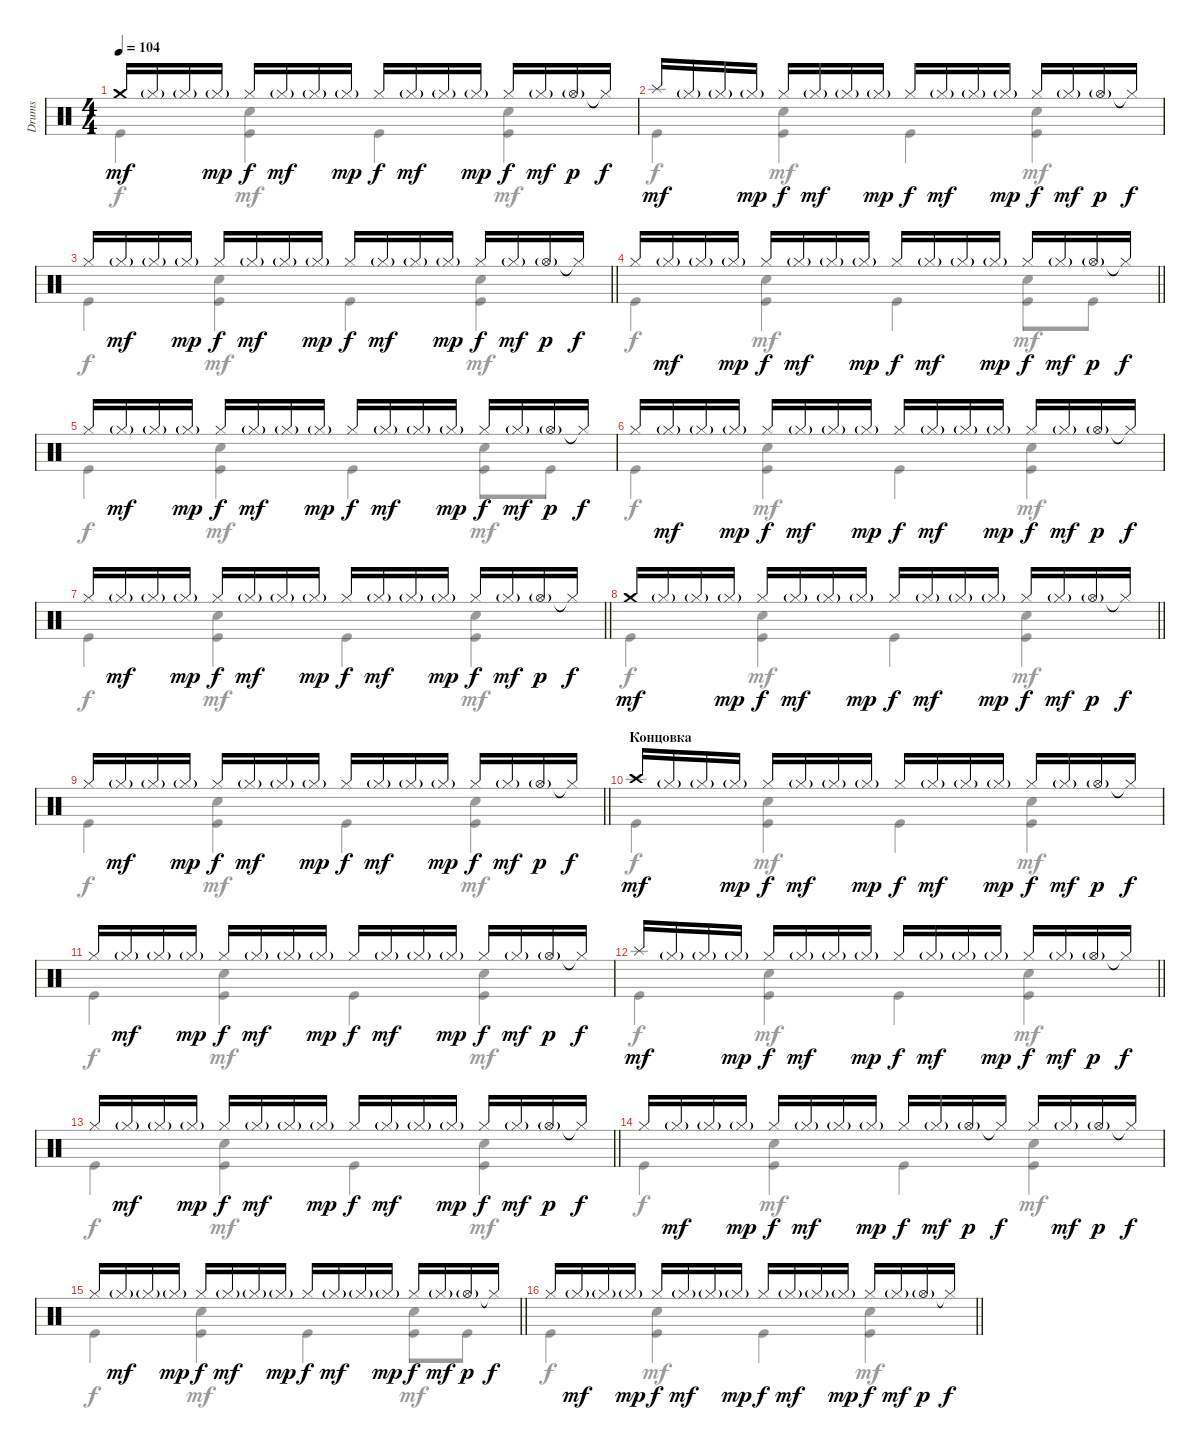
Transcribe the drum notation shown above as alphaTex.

\track ("Drums" "Drums") {instrument percussion}
\staff {score}
\articulation defaults
\voice
\ts (4 4)
\tempo 104
\clef neutral
\ks c "Crash medium (hit)".16{dy mf} "Hi-Hat (closed)"{g}.16 "Hi-Hat (closed)"{g}.16 "Hi-Hat (closed)"{g}.16{dy mp} "Hi-Hat (closed)".16{dy f} "Hi-Hat (closed)"{g}.16{dy mf} "Hi-Hat (closed)"{g}.16 "Hi-Hat (closed)"{g}.16{dy mp} "Hi-Hat (closed)".16{dy f} "Hi-Hat (closed)"{g}.16{dy mf} "Hi-Hat (closed)"{g}.16 "Hi-Hat (closed)"{g}.16{dy mp} "Hi-Hat (closed)".16{dy f} "Hi-Hat (closed)"{g}.16{dy mf} "Hi-Hat (open)"{g}.16{dy p} "Hi-Hat (closed)"{t}.16{dy f}
|
"Splash (hit)".16{dy mf} "Hi-Hat (closed)"{g}.16 "Hi-Hat (closed)"{g}.16 "Hi-Hat (closed)"{g}.16{dy mp} "Hi-Hat (closed)".16{dy f} "Hi-Hat (closed)"{g}.16{dy mf} "Hi-Hat (closed)"{g}.16 "Hi-Hat (closed)"{g}.16{dy mp} "Hi-Hat (closed)".16{dy f} "Hi-Hat (closed)"{g}.16{dy mf} "Hi-Hat (closed)"{g}.16 "Hi-Hat (closed)"{g}.16{dy mp} "Hi-Hat (closed)".16{dy f} "Hi-Hat (closed)"{g}.16{dy mf} "Hi-Hat (open)"{g}.16{dy p} "Hi-Hat (closed)"{t}.16{dy f} |
\barLineRight lightlight "Hi-Hat (closed)".16 "Hi-Hat (closed)"{g}.16{dy mf} "Hi-Hat (closed)"{g}.16 "Hi-Hat (closed)"{g}.16{dy mp} "Hi-Hat (closed)".16{dy f} "Hi-Hat (closed)"{g}.16{dy mf} "Hi-Hat (closed)"{g}.16 "Hi-Hat (closed)"{g}.16{dy mp} "Hi-Hat (closed)".16{dy f} "Hi-Hat (closed)"{g}.16{dy mf} "Hi-Hat (closed)"{g}.16 "Hi-Hat (closed)"{g}.16{dy mp} "Hi-Hat (closed)".16{dy f} "Hi-Hat (closed)"{g}.16{dy mf} "Hi-Hat (open)"{g}.16{dy p} "Hi-Hat (closed)"{t}.16{dy f}
|
\barLineRight lightlight "Hi-Hat (closed)".16 "Hi-Hat (closed)"{g}.16{dy mf} "Hi-Hat (closed)"{g}.16 "Hi-Hat (closed)"{g}.16{dy mp} "Hi-Hat (closed)".16{dy f} "Hi-Hat (closed)"{g}.16{dy mf} "Hi-Hat (closed)"{g}.16 "Hi-Hat (closed)"{g}.16{dy mp} "Hi-Hat (closed)".16{dy f} "Hi-Hat (closed)"{g}.16{dy mf} "Hi-Hat (closed)"{g}.16 "Hi-Hat (closed)"{g}.16{dy mp} "Hi-Hat (closed)".16{dy f} "Hi-Hat (closed)"{g}.16{dy mf} "Hi-Hat (open)"{g}.16{dy p} "Hi-Hat (closed)"{t}.16{dy f}
|
"Hi-Hat (closed)".16 "Hi-Hat (closed)"{g}.16{dy mf} "Hi-Hat (closed)"{g}.16 "Hi-Hat (closed)"{g}.16{dy mp} "Hi-Hat (closed)".16{dy f} "Hi-Hat (closed)"{g}.16{dy mf} "Hi-Hat (closed)"{g}.16 "Hi-Hat (closed)"{g}.16{dy mp} "Hi-Hat (closed)".16{dy f} "Hi-Hat (closed)"{g}.16{dy mf} "Hi-Hat (closed)"{g}.16 "Hi-Hat (closed)"{g}.16{dy mp} "Hi-Hat (closed)".16{dy f} "Hi-Hat (closed)"{g}.16{dy mf} "Hi-Hat (open)"{g}.16{dy p} "Hi-Hat (closed)"{t}.16{dy f} |
"Hi-Hat (closed)".16 "Hi-Hat (closed)"{g}.16{dy mf} "Hi-Hat (closed)"{g}.16 "Hi-Hat (closed)"{g}.16{dy mp} "Hi-Hat (closed)".16{dy f} "Hi-Hat (closed)"{g}.16{dy mf} "Hi-Hat (closed)"{g}.16 "Hi-Hat (closed)"{g}.16{dy mp} "Hi-Hat (closed)".16{dy f} "Hi-Hat (closed)"{g}.16{dy mf} "Hi-Hat (closed)"{g}.16 "Hi-Hat (closed)"{g}.16{dy mp} "Hi-Hat (closed)".16{dy f} "Hi-Hat (closed)"{g}.16{dy mf} "Hi-Hat (open)"{g}.16{dy p} "Hi-Hat (closed)"{t}.16{dy f} |
\barLineRight lightlight "Hi-Hat (closed)".16 "Hi-Hat (closed)"{g}.16{dy mf} "Hi-Hat (closed)"{g}.16 "Hi-Hat (closed)"{g}.16{dy mp} "Hi-Hat (closed)".16{dy f} "Hi-Hat (closed)"{g}.16{dy mf} "Hi-Hat (closed)"{g}.16 "Hi-Hat (closed)"{g}.16{dy mp} "Hi-Hat (closed)".16{dy f} "Hi-Hat (closed)"{g}.16{dy mf} "Hi-Hat (closed)"{g}.16 "Hi-Hat (closed)"{g}.16{dy mp} "Hi-Hat (closed)".16{dy f} "Hi-Hat (closed)"{g}.16{dy mf} "Hi-Hat (open)"{g}.16{dy p} "Hi-Hat (closed)"{t}.16{dy f}
|
\barLineRight lightlight "Crash medium (hit)".16{dy mf} "Hi-Hat (closed)"{g}.16 "Hi-Hat (closed)"{g}.16 "Hi-Hat (closed)"{g}.16{dy mp} "Hi-Hat (closed)".16{dy f} "Hi-Hat (closed)"{g}.16{dy mf} "Hi-Hat (closed)"{g}.16 "Hi-Hat (closed)"{g}.16{dy mp} "Hi-Hat (closed)".16{dy f} "Hi-Hat (closed)"{g}.16{dy mf} "Hi-Hat (closed)"{g}.16 "Hi-Hat (closed)"{g}.16{dy mp} "Hi-Hat (closed)".16{dy f} "Hi-Hat (closed)"{g}.16{dy mf} "Hi-Hat (open)"{g}.16{dy p} "Hi-Hat (closed)"{t}.16{dy f}
|
\barLineRight lightlight "Hi-Hat (closed)".16 "Hi-Hat (closed)"{g}.16{dy mf} "Hi-Hat (closed)"{g}.16 "Hi-Hat (closed)"{g}.16{dy mp} "Hi-Hat (closed)".16{dy f} "Hi-Hat (closed)"{g}.16{dy mf} "Hi-Hat (closed)"{g}.16 "Hi-Hat (closed)"{g}.16{dy mp} "Hi-Hat (closed)".16{dy f} "Hi-Hat (closed)"{g}.16{dy mf} "Hi-Hat (closed)"{g}.16 "Hi-Hat (closed)"{g}.16{dy mp} "Hi-Hat (closed)".16{dy f} "Hi-Hat (closed)"{g}.16{dy mf} "Hi-Hat (open)"{g}.16{dy p} "Hi-Hat (closed)"{t}.16{dy f}
|
\section ("" "Концовка")
"Crash high (hit)".16{dy mf} "Hi-Hat (closed)"{g}.16 "Hi-Hat (closed)"{g}.16 "Hi-Hat (closed)"{g}.16{dy mp} "Hi-Hat (closed)".16{dy f} "Hi-Hat (closed)"{g}.16{dy mf} "Hi-Hat (closed)"{g}.16 "Hi-Hat (closed)"{g}.16{dy mp} "Hi-Hat (closed)".16{dy f} "Hi-Hat (closed)"{g}.16{dy mf} "Hi-Hat (closed)"{g}.16 "Hi-Hat (closed)"{g}.16{dy mp} "Hi-Hat (closed)".16{dy f} "Hi-Hat (closed)"{g}.16{dy mf} "Hi-Hat (open)"{g}.16{dy p} "Hi-Hat (closed)"{t}.16{dy f} |
"Hi-Hat (closed)".16 "Hi-Hat (closed)"{g}.16{dy mf} "Hi-Hat (closed)"{g}.16 "Hi-Hat (closed)"{g}.16{dy mp} "Hi-Hat (closed)".16{dy f} "Hi-Hat (closed)"{g}.16{dy mf} "Hi-Hat (closed)"{g}.16 "Hi-Hat (closed)"{g}.16{dy mp} "Hi-Hat (closed)".16{dy f} "Hi-Hat (closed)"{g}.16{dy mf} "Hi-Hat (closed)"{g}.16 "Hi-Hat (closed)"{g}.16{dy mp} "Hi-Hat (closed)".16{dy f} "Hi-Hat (closed)"{g}.16{dy mf} "Hi-Hat (open)"{g}.16{dy p} "Hi-Hat (closed)"{t}.16{dy f} |
\barLineRight lightlight "Splash (hit)".16{dy mf} "Hi-Hat (closed)"{g}.16 "Hi-Hat (closed)"{g}.16 "Hi-Hat (closed)"{g}.16{dy mp} "Hi-Hat (closed)".16{dy f} "Hi-Hat (closed)"{g}.16{dy mf} "Hi-Hat (closed)"{g}.16 "Hi-Hat (closed)"{g}.16{dy mp} "Hi-Hat (closed)".16{dy f} "Hi-Hat (closed)"{g}.16{dy mf} "Hi-Hat (closed)"{g}.16 "Hi-Hat (closed)"{g}.16{dy mp} "Hi-Hat (closed)".16{dy f} "Hi-Hat (closed)"{g}.16{dy mf} "Hi-Hat (open)"{g}.16{dy p} "Hi-Hat (closed)"{t}.16{dy f}
|
\barLineRight lightlight "Hi-Hat (closed)".16 "Hi-Hat (closed)"{g}.16{dy mf} "Hi-Hat (closed)"{g}.16 "Hi-Hat (closed)"{g}.16{dy mp} "Hi-Hat (closed)".16{dy f} "Hi-Hat (closed)"{g}.16{dy mf} "Hi-Hat (closed)"{g}.16 "Hi-Hat (closed)"{g}.16{dy mp} "Hi-Hat (closed)".16{dy f} "Hi-Hat (closed)"{g}.16{dy mf} "Hi-Hat (closed)"{g}.16 "Hi-Hat (closed)"{g}.16{dy mp} "Hi-Hat (closed)".16{dy f} "Hi-Hat (closed)"{g}.16{dy mf} "Hi-Hat (open)"{g}.16{dy p} "Hi-Hat (closed)"{t}.16{dy f}
|
\section ("" "")
"Hi-Hat (closed)".16 "Hi-Hat (closed)"{g}.16{dy mf} "Hi-Hat (closed)"{g}.16 "Hi-Hat (closed)"{g}.16{dy mp} "Hi-Hat (closed)".16{dy f} "Hi-Hat (closed)"{g}.16{dy mf} "Hi-Hat (closed)"{g}.16 "Hi-Hat (closed)"{g}.16{dy mp} "Hi-Hat (closed)".16{dy f} "Hi-Hat (closed)"{g}.16{dy mf} "Hi-Hat (open)"{g}.16{dy p} "Hi-Hat (closed)"{t}.16{dy f} "Hi-Hat (closed)".16 "Hi-Hat (closed)"{g}.16{dy mf} "Hi-Hat (open)"{g}.16{dy p} "Hi-Hat (closed)"{t}.16{dy f} |
\barLineRight lightlight "Hi-Hat (closed)".16 "Hi-Hat (closed)"{g}.16{dy mf} "Hi-Hat (closed)"{g}.16 "Hi-Hat (closed)"{g}.16{dy mp} "Hi-Hat (closed)".16{dy f} "Hi-Hat (closed)"{g}.16{dy mf} "Hi-Hat (closed)"{g}.16 "Hi-Hat (closed)"{g}.16{dy mp} "Hi-Hat (closed)".16{dy f} "Hi-Hat (closed)"{g}.16{dy mf} "Hi-Hat (closed)"{g}.16 "Hi-Hat (closed)"{g}.16{dy mp} "Hi-Hat (closed)".16{dy f} "Hi-Hat (closed)"{g}.16{dy mf} "Hi-Hat (open)"{g}.16{dy p} "Hi-Hat (closed)"{t}.16{dy f}
|
\barLineRight lightlight "Hi-Hat (closed)".16 "Hi-Hat (closed)"{g}.16{dy mf} "Hi-Hat (closed)"{g}.16 "Hi-Hat (closed)"{g}.16{dy mp} "Hi-Hat (closed)".16{dy f} "Hi-Hat (closed)"{g}.16{dy mf} "Hi-Hat (closed)"{g}.16 "Hi-Hat (closed)"{g}.16{dy mp} "Hi-Hat (closed)".16{dy f} "Hi-Hat (closed)"{g}.16{dy mf} "Hi-Hat (closed)"{g}.16 "Hi-Hat (closed)"{g}.16{dy mp} "Hi-Hat (closed)".16{dy f} "Hi-Hat (closed)"{g}.16{dy mf} "Hi-Hat (open)"{g}.16{dy p} "Hi-Hat (closed)"{t}.16{dy f}
\voice
\clef neutral
\ottava regular
\simile none
\ks c "Kick (hit)".4{dy f}
("Snare (hit) 2" "Kick (hit)").4{dy mf} "Kick (hit)".4{dy f} ("Snare (hit) 2" "Kick (hit)").4{dy mf} |
"Kick (hit)".4{dy f} ("Snare (hit) 2" "Kick (hit)").4{dy mf} "Kick (hit)".4{dy f} ("Snare (hit) 2" "Kick (hit)").4{dy mf} |
\barLineRight lightlight "Kick (hit)".4{dy f}
("Snare (hit) 2" "Kick (hit)").4{dy mf} "Kick (hit)".4{dy f} ("Snare (hit) 2" "Kick (hit)").4{dy mf} |
\barLineRight lightlight "Kick (hit)".4{dy f}
("Snare (hit) 2" "Kick (hit)").4{dy mf} "Kick (hit)".4{dy f} ("Snare (hit) 2" "Kick (hit)").8{dy mf} "Kick (hit)".8 |
"Kick (hit)".4{dy f} ("Snare (hit) 2" "Kick (hit)").4{dy mf} "Kick (hit)".4{dy f} ("Snare (hit) 2" "Kick (hit)").8{dy mf} "Kick (hit)".8 |
"Kick (hit)".4{dy f} ("Snare (hit) 2" "Kick (hit)").4{dy mf} "Kick (hit)".4{dy f} ("Snare (hit) 2" "Kick (hit)").4{dy mf} |
\barLineRight lightlight "Kick (hit)".4{dy f}
("Snare (hit) 2" "Kick (hit)").4{dy mf} "Kick (hit)".4{dy f} ("Snare (hit) 2" "Kick (hit)").4{dy mf} |
\barLineRight lightlight "Kick (hit)".4{dy f}
("Snare (hit) 2" "Kick (hit)").4{dy mf} "Kick (hit)".4{dy f} ("Snare (hit) 2" "Kick (hit)").4{dy mf} |
\barLineRight lightlight "Kick (hit)".4{dy f}
("Snare (hit) 2" "Kick (hit)").4{dy mf} "Kick (hit)".4{dy f} ("Snare (hit) 2" "Kick (hit)").4{dy mf} |
"Kick (hit)".4{dy f} ("Snare (hit) 2" "Kick (hit)").4{dy mf} "Kick (hit)".4{dy f} ("Snare (hit) 2" "Kick (hit)").4{dy mf} |
"Kick (hit)".4{dy f} ("Snare (hit) 2" "Kick (hit)").4{dy mf} "Kick (hit)".4{dy f} ("Snare (hit) 2" "Kick (hit)").4{dy mf} |
\barLineRight lightlight "Kick (hit)".4{dy f}
("Snare (hit) 2" "Kick (hit)").4{dy mf} "Kick (hit)".4{dy f} ("Snare (hit) 2" "Kick (hit)").4{dy mf} |
\barLineRight lightlight "Kick (hit)".4{dy f}
("Snare (hit) 2" "Kick (hit)").4{dy mf} "Kick (hit)".4{dy f} ("Snare (hit) 2" "Kick (hit)").4{dy mf} |
"Kick (hit)".4{dy f} ("Snare (hit) 2" "Kick (hit)").4{dy mf} "Kick (hit)".4{dy f} ("Snare (hit) 2" "Kick (hit)").4{dy mf} |
\barLineRight lightlight "Kick (hit)".4{dy f}
("Snare (hit) 2" "Kick (hit)").4{dy mf} "Kick (hit)".4{dy f} ("Snare (hit) 2" "Kick (hit)").8{dy mf} "Kick (hit)".8 |
\barLineRight lightlight "Kick (hit)".4{dy f}
("Snare (hit) 2" "Kick (hit)").4{dy mf} "Kick (hit)".4{dy f} ("Snare (hit) 2" "Kick (hit)").4{dy mf}
